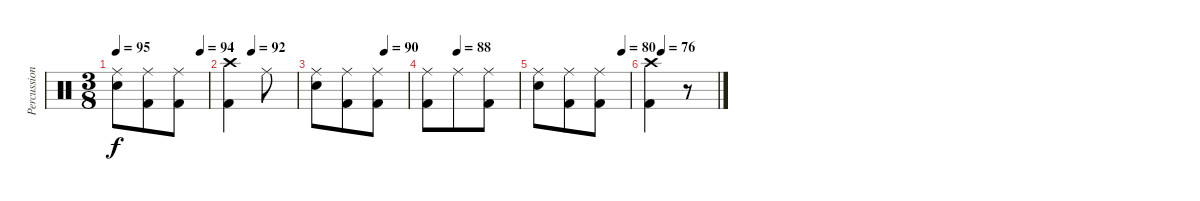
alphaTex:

\track ("Percussion" "Percussion") {instrument percussion}
\staff {score}
\articulation defaults
\ts (3 8)
\tempo 95
\tempo (94 0.9166666666666666)
\clef neutral
\ks c
("Ride (middle)" "Snare (hit) 2").8{dy f} ("Ride (middle)" "Kick (hit) 2").8 ("Ride (middle)" "Kick (hit) 2").8 |
\tempo (92 0.3333333333333333)
("Crash high (hit)" "Kick (hit) 2").4 "Ride (middle)".8 |
\tempo (90 0.75)
("Ride (middle)" "Snare (hit) 2").8 ("Ride (middle)" "Kick (hit) 2").8 ("Ride (middle)" "Kick (hit) 2").8 |
\tempo (88 0.3333333333333333)
("Ride (middle)" "Kick (hit) 2").8 "Ride (middle)".8 ("Ride (middle)" "Kick (hit) 2").8 |
\tempo (80 0.9166666666666666)
("Ride (middle)" "Snare (hit) 2").8 ("Ride (middle)" "Kick (hit) 2").8 ("Ride (middle)" "Kick (hit) 2").8 |
\tempo (76 0.16666666666666666)
("Crash high (hit)" "Kick (hit) 2").4 r.8
